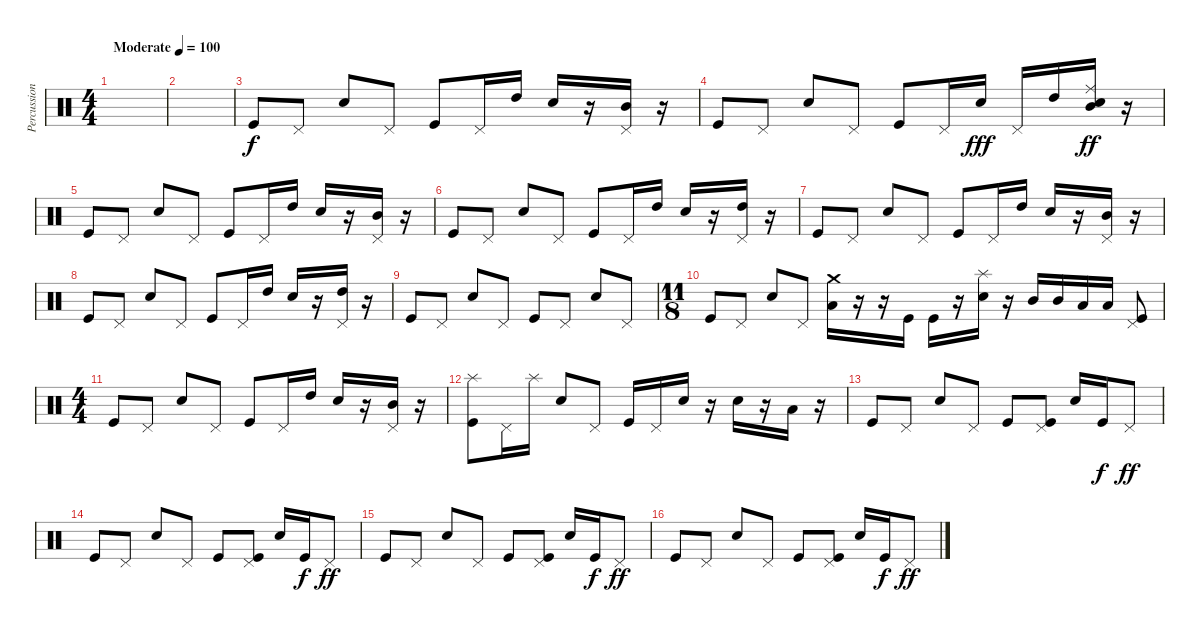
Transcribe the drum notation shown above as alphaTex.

\track ("Percussion" "Percussion") {instrument percussion}
\staff {score}
\articulation defaults
\ts (4 4)
\tempo (100 "Moderate")
\clef neutral
\ks c
|
|
"Kick (hit)".8 "Pedal Hi-Hat (hit)".8 "Electric Snare (hit)".8 "Pedal Hi-Hat (hit)".8 "Kick (hit)".8 "Pedal Hi-Hat (hit)".16 "High Tom (hit)".16 "Electric Snare (hit)".16 r.16 ("Pedal Hi-Hat (hit)" "Mid Tom (hit)").16 r.16 |
"Kick (hit)".8 "Pedal Hi-Hat (hit)".8 "Electric Snare (hit)".8 "Pedal Hi-Hat (hit)".8 "Kick (hit)".8 "Pedal Hi-Hat (hit)".16 "Electric Snare (hit)".16{dy fff} "Pedal Hi-Hat (hit)".16 "High Tom (hit)".16 ("Ride (middle)" "Electric Snare (hit)" "Mid Tom (hit)").16{dy ff} r.16 |
"Kick (hit)".8 "Pedal Hi-Hat (hit)".8 "Electric Snare (hit)".8 "Pedal Hi-Hat (hit)".8 "Kick (hit)".8 "Pedal Hi-Hat (hit)".16 "High Tom (hit)".16 "Electric Snare (hit)".16 r.16 ("Pedal Hi-Hat (hit)" "Mid Tom (hit)").16 r.16 |
"Kick (hit)".8 "Pedal Hi-Hat (hit)".8 "Electric Snare (hit)".8 "Pedal Hi-Hat (hit)".8 "Kick (hit)".8 "Pedal Hi-Hat (hit)".16 "High Tom (hit)".16 "Electric Snare (hit)".16 r.16 ("Pedal Hi-Hat (hit)" "High Tom (hit)").16 r.16 |
"Kick (hit)".8 "Pedal Hi-Hat (hit)".8 "Electric Snare (hit)".8 "Pedal Hi-Hat (hit)".8 "Kick (hit)".8 "Pedal Hi-Hat (hit)".16 "High Tom (hit)".16 "Electric Snare (hit)".16 r.16 ("Pedal Hi-Hat (hit)" "Mid Tom (hit)").16 r.16 |
"Kick (hit)".8 "Pedal Hi-Hat (hit)".8 "Electric Snare (hit)".8 "Pedal Hi-Hat (hit)".8 "Kick (hit)".8 "Pedal Hi-Hat (hit)".16 "High Tom (hit)".16 "Electric Snare (hit)".16 r.16 ("Pedal Hi-Hat (hit)" "High Tom (hit)").16 r.16 |
"Kick (hit)".8 "Pedal Hi-Hat (hit)".8 "Electric Snare (hit)".8 "Pedal Hi-Hat (hit)".8 "Kick (hit)".8 "Pedal Hi-Hat (hit)".8 "Electric Snare (hit)".8 "Pedal Hi-Hat (hit)".8 |
\ts (11 8)
"Kick (hit)".8 "Pedal Hi-Hat (hit)".8 "Electric Snare (hit)".8 "Pedal Hi-Hat (hit)".8 ("Crash medium (hit)" "Low Floor Tom (hit)").16 r.16 r.16 "Kick (hit)".16 "Kick (hit)".16 r.16 ("Splash (hit)" "Electric Snare (hit)").16 r.16 "Mid Tom (hit)".16 "Mid Tom (hit)".16 "Low Tom (hit)".16 "Low Tom (hit)".16 ("Pedal Hi-Hat (hit)" "Kick (hit)").8 |
\ts (4 4)
"Kick (hit)".8 "Pedal Hi-Hat (hit)".8 "Electric Snare (hit)".8 "Pedal Hi-Hat (hit)".8 "Kick (hit)".8 "Pedal Hi-Hat (hit)".16 "High Tom (hit)".16 "Electric Snare (hit)".16 r.16 ("Pedal Hi-Hat (hit)" "Mid Tom (hit)").16 r.16 |
("Splash (hit)" "Kick (hit)").8 "Pedal Hi-Hat (hit)".16 "Splash (hit)".16 "Electric Snare (hit)".8 "Pedal Hi-Hat (hit)".8 "Kick (hit)".16 "Pedal Hi-Hat (hit)".16 "Electric Snare (hit)".16 r.16 "Electric Snare (hit)".16 r.16 "Low Tom (hit)".16 r.16 |
"Kick (hit)".8 "Pedal Hi-Hat (hit)".8 "Electric Snare (hit)".8 "Pedal Hi-Hat (hit)".8 "Kick (hit)".8 ("Pedal Hi-Hat (hit)" "Kick (hit)").8 "Electric Snare (hit)".16 "Kick (hit)".16{dy f} "Pedal Hi-Hat (hit)".8{dy ff} |
"Kick (hit)".8 "Pedal Hi-Hat (hit)".8 "Electric Snare (hit)".8 "Pedal Hi-Hat (hit)".8 "Kick (hit)".8 ("Pedal Hi-Hat (hit)" "Kick (hit)").8 "Electric Snare (hit)".16 "Kick (hit)".16{dy f} "Pedal Hi-Hat (hit)".8{dy ff} |
"Kick (hit)".8 "Pedal Hi-Hat (hit)".8 "Electric Snare (hit)".8 "Pedal Hi-Hat (hit)".8 "Kick (hit)".8 ("Pedal Hi-Hat (hit)" "Kick (hit)").8 "Electric Snare (hit)".16 "Kick (hit)".16{dy f} "Pedal Hi-Hat (hit)".8{dy ff} |
"Kick (hit)".8 "Pedal Hi-Hat (hit)".8 "Electric Snare (hit)".8 "Pedal Hi-Hat (hit)".8 "Kick (hit)".8 ("Pedal Hi-Hat (hit)" "Kick (hit)").8 "Electric Snare (hit)".16 "Kick (hit)".16{dy f} "Pedal Hi-Hat (hit)".8{dy ff}
